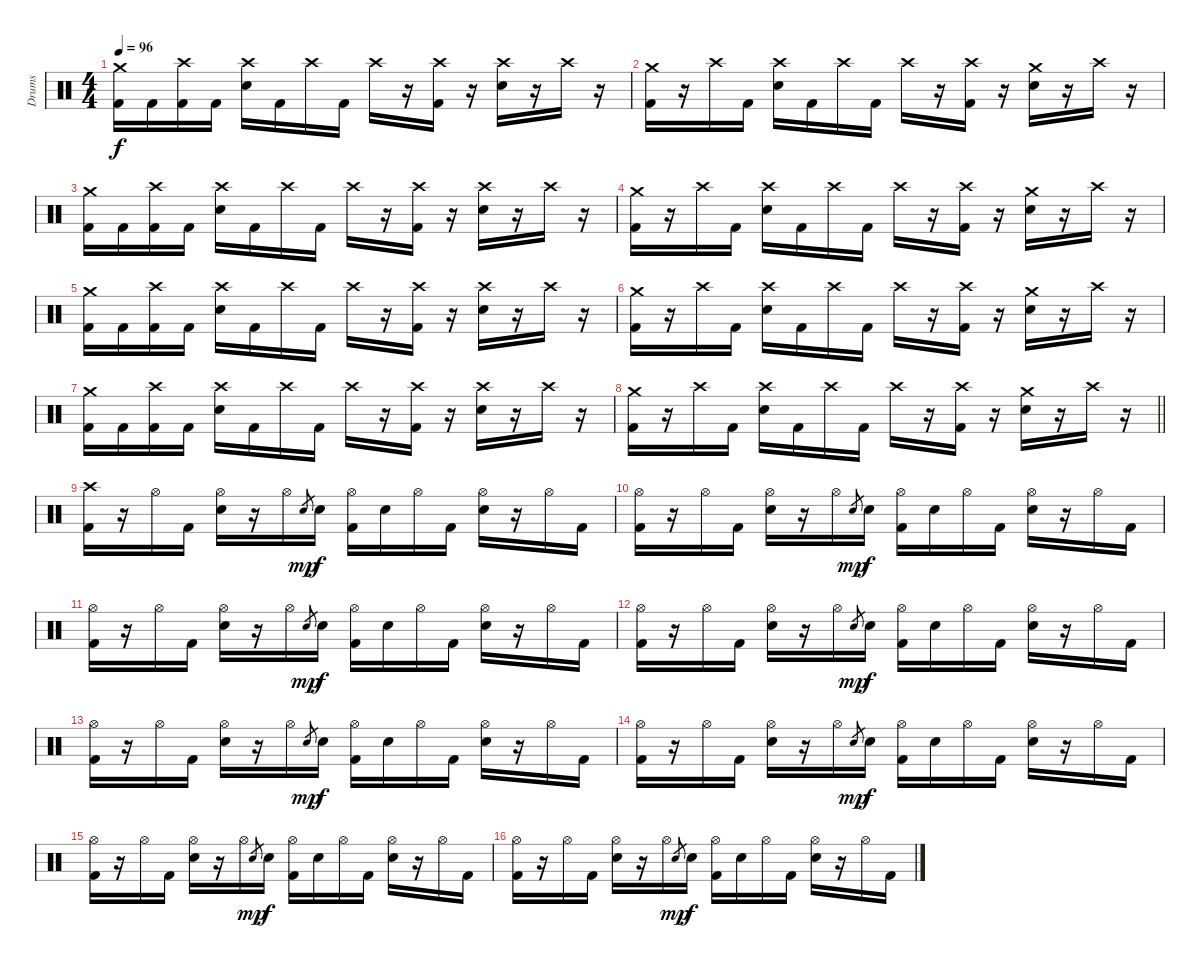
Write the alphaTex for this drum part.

\track ("Drums" "Drums") {instrument percussion}
\staff {score}
\articulation defaults
\ts (4 4)
\tempo 96
\clef neutral
\ks c
("Kick (hit) 2" "Crash medium (hit)").16{dy f} "Kick (hit) 2".16 ("Kick (hit) 2" "Crash high (hit)").16 "Kick (hit) 2".16 ("Electric Snare (hit)" "Crash high (hit)").16 "Kick (hit) 2".16 "Crash high (hit)".16 "Kick (hit) 2".16 "Crash high (hit)".16 r.16 ("Kick (hit) 2" "Crash high (hit)").16 r.16 ("Electric Snare (hit)" "Crash high (hit)").16 r.16 "Crash high (hit)".16 r.16 |
("Kick (hit) 2" "Crash medium (hit)").16 r.16 "Crash high (hit)".16 "Kick (hit) 2".16 ("Electric Snare (hit)" "Crash high (hit)").16 "Kick (hit) 2".16 "Crash high (hit)".16 "Kick (hit) 2".16 "Crash high (hit)".16 r.16 ("Kick (hit) 2" "Crash high (hit)").16 r.16 ("Electric Snare (hit)" "Crash medium (hit)").16 r.16 "Crash high (hit)".16 r.16 |
("Kick (hit) 2" "Crash medium (hit)").16 "Kick (hit) 2".16 ("Kick (hit) 2" "Crash high (hit)").16 "Kick (hit) 2".16 ("Electric Snare (hit)" "Crash high (hit)").16 "Kick (hit) 2".16 "Crash high (hit)".16 "Kick (hit) 2".16 "Crash high (hit)".16 r.16 ("Kick (hit) 2" "Crash high (hit)").16 r.16 ("Electric Snare (hit)" "Crash high (hit)").16 r.16 "Crash high (hit)".16 r.16 |
("Kick (hit) 2" "Crash medium (hit)").16 r.16 "Crash high (hit)".16 "Kick (hit) 2".16 ("Electric Snare (hit)" "Crash high (hit)").16 "Kick (hit) 2".16 "Crash high (hit)".16 "Kick (hit) 2".16 "Crash high (hit)".16 r.16 ("Kick (hit) 2" "Crash high (hit)").16 r.16 ("Electric Snare (hit)" "Crash medium (hit)").16 r.16 "Crash high (hit)".16 r.16 |
("Kick (hit) 2" "Crash medium (hit)").16 "Kick (hit) 2".16 ("Kick (hit) 2" "Crash high (hit)").16 "Kick (hit) 2".16 ("Electric Snare (hit)" "Crash high (hit)").16 "Kick (hit) 2".16 "Crash high (hit)".16 "Kick (hit) 2".16 "Crash high (hit)".16 r.16 ("Kick (hit) 2" "Crash high (hit)").16 r.16 ("Electric Snare (hit)" "Crash high (hit)").16 r.16 "Crash high (hit)".16 r.16 |
("Kick (hit) 2" "Crash medium (hit)").16 r.16 "Crash high (hit)".16 "Kick (hit) 2".16 ("Electric Snare (hit)" "Crash high (hit)").16 "Kick (hit) 2".16 "Crash high (hit)".16 "Kick (hit) 2".16 "Crash high (hit)".16 r.16 ("Kick (hit) 2" "Crash high (hit)").16 r.16 ("Electric Snare (hit)" "Crash medium (hit)").16 r.16 "Crash high (hit)".16 r.16 |
("Kick (hit) 2" "Crash medium (hit)").16 "Kick (hit) 2".16 ("Kick (hit) 2" "Crash high (hit)").16 "Kick (hit) 2".16 ("Electric Snare (hit)" "Crash high (hit)").16 "Kick (hit) 2".16 "Crash high (hit)".16 "Kick (hit) 2".16 "Crash high (hit)".16 r.16 ("Kick (hit) 2" "Crash high (hit)").16 r.16 ("Electric Snare (hit)" "Crash high (hit)").16 r.16 "Crash high (hit)".16 r.16 |
\barLineRight lightlight
("Kick (hit) 2" "Crash medium (hit)").16 r.16 "Crash high (hit)".16 "Kick (hit) 2".16 ("Electric Snare (hit)" "Crash high (hit)").16 "Kick (hit) 2".16 "Crash high (hit)".16 "Kick (hit) 2".16 "Crash high (hit)".16 r.16 ("Kick (hit) 2" "Crash high (hit)").16 r.16 ("Electric Snare (hit)" "Crash medium (hit)").16 r.16 "Crash high (hit)".16 r.16 |
("Kick (hit) 2" "Crash high (hit)").16 r.16 "Hi-Hat (open)".16 "Kick (hit) 2".16 ("Electric Snare (hit)" "Hi-Hat (open)").16 r.16 "Hi-Hat (open)".16 "Electric Snare (hit)".8{gr dy mp} "Electric Snare (hit)".16{dy f} ("Kick (hit) 2" "Hi-Hat (open)").16 "Electric Snare (hit)".16 "Hi-Hat (open)".16 "Kick (hit) 2".16 ("Electric Snare (hit)" "Hi-Hat (open)").16 r.16 "Hi-Hat (open)".16 "Kick (hit) 2".16 |
("Kick (hit) 2" "Hi-Hat (open)").16 r.16 "Hi-Hat (open)".16 "Kick (hit) 2".16 ("Electric Snare (hit)" "Hi-Hat (open)").16 r.16 "Hi-Hat (open)".16 "Electric Snare (hit)".8{gr dy mp} "Electric Snare (hit)".16{dy f} ("Kick (hit) 2" "Hi-Hat (open)").16 "Electric Snare (hit)".16 "Hi-Hat (open)".16 "Kick (hit) 2".16 ("Electric Snare (hit)" "Hi-Hat (open)").16 r.16 "Hi-Hat (open)".16 "Kick (hit) 2".16 |
("Kick (hit) 2" "Hi-Hat (open)").16 r.16 "Hi-Hat (open)".16 "Kick (hit) 2".16 ("Electric Snare (hit)" "Hi-Hat (open)").16 r.16 "Hi-Hat (open)".16 "Electric Snare (hit)".8{gr dy mp} "Electric Snare (hit)".16{dy f} ("Kick (hit) 2" "Hi-Hat (open)").16 "Electric Snare (hit)".16 "Hi-Hat (open)".16 "Kick (hit) 2".16 ("Electric Snare (hit)" "Hi-Hat (open)").16 r.16 "Hi-Hat (open)".16 "Kick (hit) 2".16 |
("Kick (hit) 2" "Hi-Hat (open)").16 r.16 "Hi-Hat (open)".16 "Kick (hit) 2".16 ("Electric Snare (hit)" "Hi-Hat (open)").16 r.16 "Hi-Hat (open)".16 "Electric Snare (hit)".8{gr dy mp} "Electric Snare (hit)".16{dy f} ("Kick (hit) 2" "Hi-Hat (open)").16 "Electric Snare (hit)".16 "Hi-Hat (open)".16 "Kick (hit) 2".16 ("Electric Snare (hit)" "Hi-Hat (open)").16 r.16 "Hi-Hat (open)".16 "Kick (hit) 2".16 |
("Kick (hit) 2" "Hi-Hat (open)").16 r.16 "Hi-Hat (open)".16 "Kick (hit) 2".16 ("Electric Snare (hit)" "Hi-Hat (open)").16 r.16 "Hi-Hat (open)".16 "Electric Snare (hit)".8{gr dy mp} "Electric Snare (hit)".16{dy f} ("Kick (hit) 2" "Hi-Hat (open)").16 "Electric Snare (hit)".16 "Hi-Hat (open)".16 "Kick (hit) 2".16 ("Electric Snare (hit)" "Hi-Hat (open)").16 r.16 "Hi-Hat (open)".16 "Kick (hit) 2".16 |
("Kick (hit) 2" "Hi-Hat (open)").16 r.16 "Hi-Hat (open)".16 "Kick (hit) 2".16 ("Electric Snare (hit)" "Hi-Hat (open)").16 r.16 "Hi-Hat (open)".16 "Electric Snare (hit)".8{gr dy mp} "Electric Snare (hit)".16{dy f} ("Kick (hit) 2" "Hi-Hat (open)").16 "Electric Snare (hit)".16 "Hi-Hat (open)".16 "Kick (hit) 2".16 ("Electric Snare (hit)" "Hi-Hat (open)").16 r.16 "Hi-Hat (open)".16 "Kick (hit) 2".16 |
("Kick (hit) 2" "Hi-Hat (open)").16 r.16 "Hi-Hat (open)".16 "Kick (hit) 2".16 ("Electric Snare (hit)" "Hi-Hat (open)").16 r.16 "Hi-Hat (open)".16 "Electric Snare (hit)".8{gr dy mp} "Electric Snare (hit)".16{dy f} ("Kick (hit) 2" "Hi-Hat (open)").16 "Electric Snare (hit)".16 "Hi-Hat (open)".16 "Kick (hit) 2".16 ("Electric Snare (hit)" "Hi-Hat (open)").16 r.16 "Hi-Hat (open)".16 "Kick (hit) 2".16 |
("Kick (hit) 2" "Hi-Hat (open)").16 r.16 "Hi-Hat (open)".16 "Kick (hit) 2".16 ("Electric Snare (hit)" "Hi-Hat (open)").16 r.16 "Hi-Hat (open)".16 "Electric Snare (hit)".8{gr dy mp} "Electric Snare (hit)".16{dy f} ("Kick (hit) 2" "Hi-Hat (open)").16 "Electric Snare (hit)".16 "Hi-Hat (open)".16 "Kick (hit) 2".16 ("Electric Snare (hit)" "Hi-Hat (open)").16 r.16 "Hi-Hat (open)".16 "Kick (hit) 2".16
